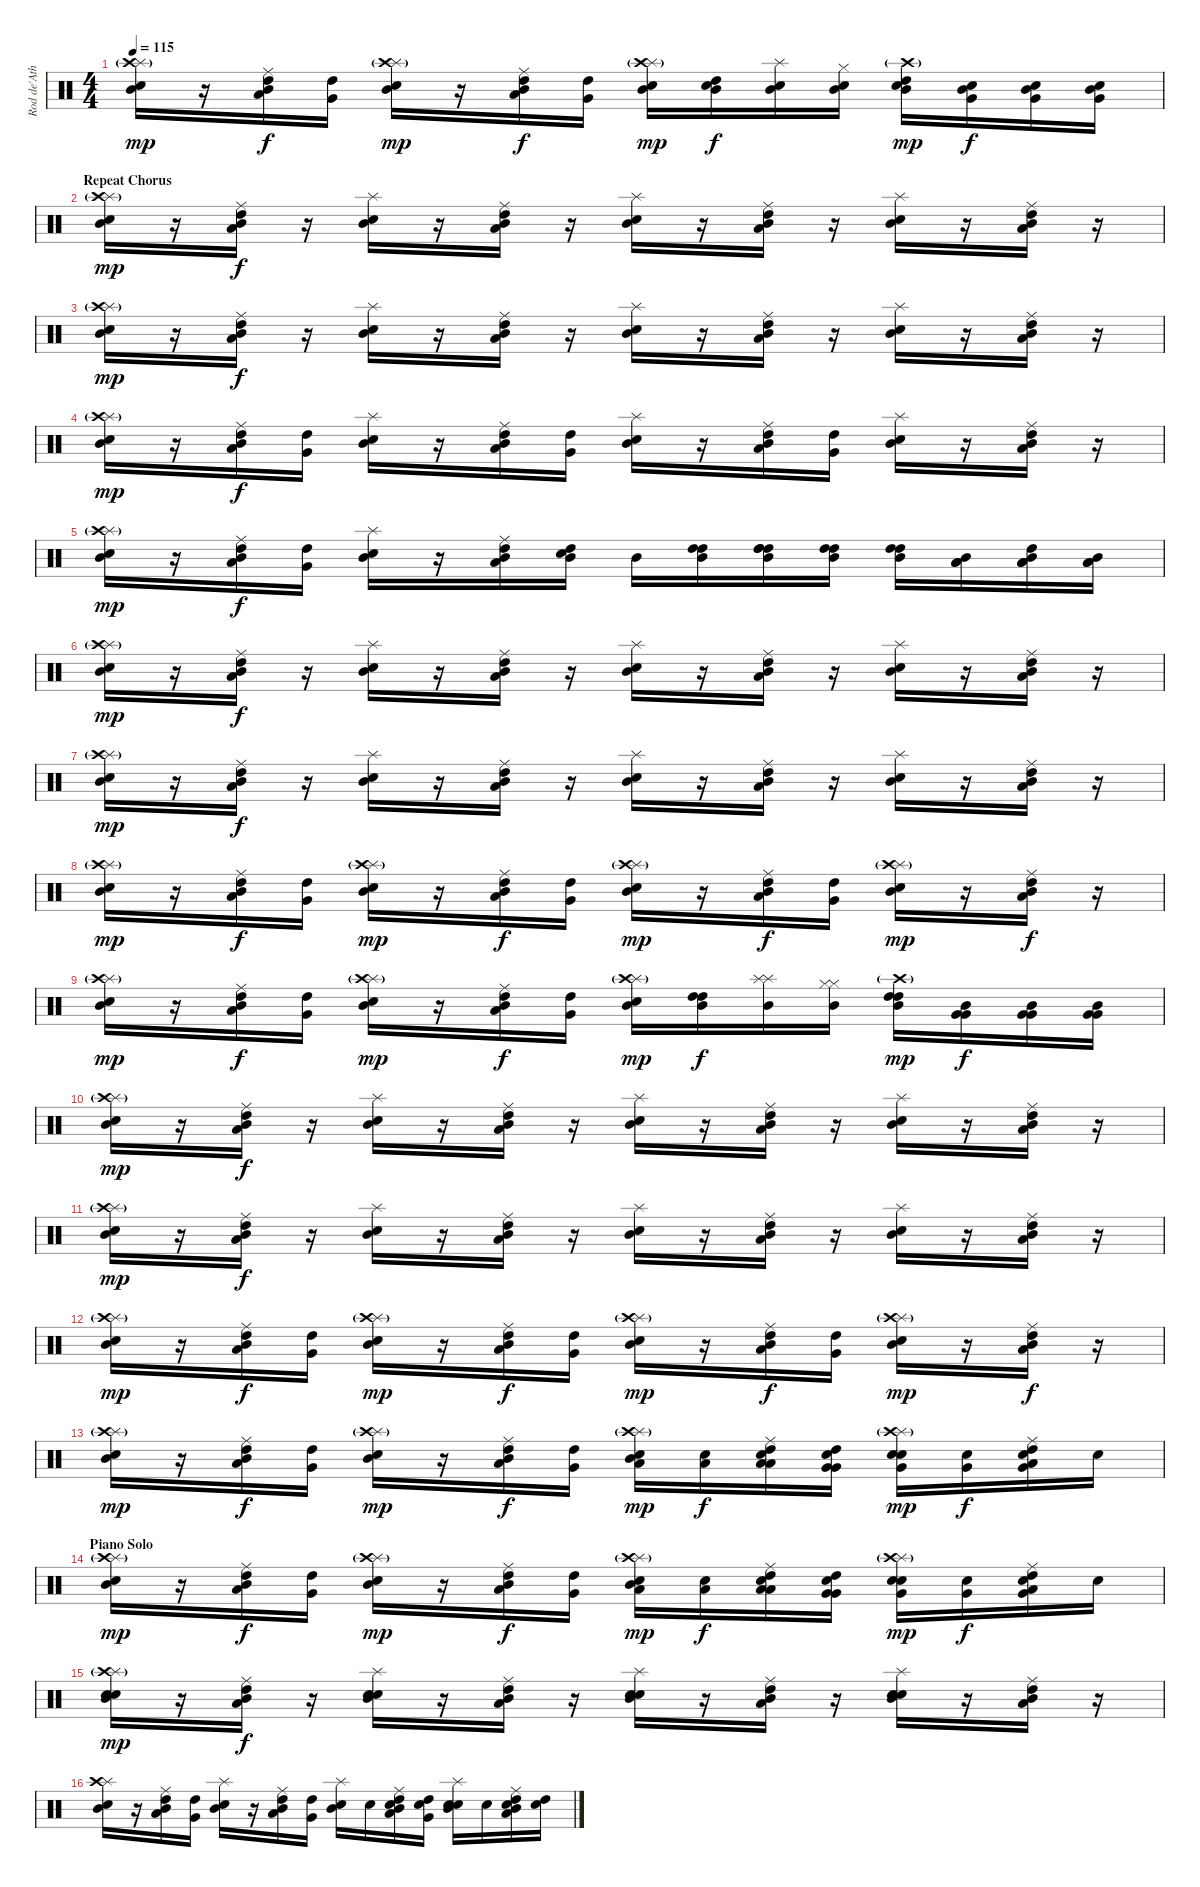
\track ("Rod de'Ath" "Rod de'Ath") {instrument percussion}
\staff {score}
\articulation defaults
\ts (4 4)
\tempo 115
\clef neutral
\ks c
("Splash (hit)" "Snare (hit) 2" "Crash high (hit)"{g} "Mid Tom (hit)").16{dy mp} r.16 ("Ride (middle)" "Low Tom (hit)" "High Tom (hit)" "Mid Tom (hit)").16{dy f} ("Very Low Tom (hit)" "High Tom (hit)").16 ("Splash (hit)" "Snare (hit) 2" "Crash high (hit)"{g} "Mid Tom (hit)").16{dy mp} r.16 ("Ride (middle)" "Low Tom (hit)" "High Tom (hit)" "Mid Tom (hit)").16{dy f} ("Very Low Tom (hit)" "High Tom (hit)").16 ("Splash (hit)" "Electric Snare (hit)" "Crash high (hit)"{g} "Mid Tom (hit)").16{dy mp} ("High Tom (hit)" "Electric Snare (hit)" "Mid Tom (hit)").16{dy f} ("Splash (hit)" "Electric Snare (hit)" "Mid Tom (hit)").16 ("Hi-Hat (closed)" "Electric Snare (hit)" "Mid Tom (hit)").16 ("High Tom (hit)" "Snare (hit) 2" "Crash high (hit)"{g} "Mid Tom (hit)").16{dy mp} ("Very Low Tom (hit)" "Snare (hit) 2" "Mid Tom (hit)").16{dy f} ("Very Low Tom (hit)" "Snare (hit) 2" "Mid Tom (hit)").16 ("Very Low Tom (hit)" "Snare (hit) 2" "Mid Tom (hit)").16 |
\section ("" "Repeat Chorus")
("Splash (hit)" "Snare (hit) 2" "Crash high (hit)"{g} "Mid Tom (hit)").16{dy mp} r.16 ("Ride (middle)" "Low Tom (hit)" "High Tom (hit)" "Mid Tom (hit)").16{dy f} r.16 ("Splash (hit)" "Snare (hit) 2" "Mid Tom (hit)").16 r.16 ("Ride (middle)" "Low Tom (hit)" "High Tom (hit)" "Mid Tom (hit)").16 r.16 ("Splash (hit)" "Snare (hit) 2" "Mid Tom (hit)").16 r.16 ("Ride (middle)" "Low Tom (hit)" "High Tom (hit)" "Mid Tom (hit)").16 r.16 ("Splash (hit)" "Snare (hit) 2" "Mid Tom (hit)").16 r.16 ("Ride (middle)" "Low Tom (hit)" "High Tom (hit)" "Mid Tom (hit)").16 r.16 |
("Splash (hit)" "Snare (hit) 2" "Crash high (hit)"{g} "Mid Tom (hit)").16{dy mp} r.16 ("Ride (middle)" "Low Tom (hit)" "High Tom (hit)" "Mid Tom (hit)").16{dy f} r.16 ("Splash (hit)" "Snare (hit) 2" "Mid Tom (hit)").16 r.16 ("Ride (middle)" "Low Tom (hit)" "High Tom (hit)" "Mid Tom (hit)").16 r.16 ("Splash (hit)" "Snare (hit) 2" "Mid Tom (hit)").16 r.16 ("Ride (middle)" "Low Tom (hit)" "High Tom (hit)" "Mid Tom (hit)").16 r.16 ("Splash (hit)" "Snare (hit) 2" "Mid Tom (hit)").16 r.16 ("Ride (middle)" "Low Tom (hit)" "High Tom (hit)" "Mid Tom (hit)").16 r.16 |
("Splash (hit)" "Snare (hit) 2" "Crash high (hit)"{g} "Mid Tom (hit)").16{dy mp} r.16 ("Ride (middle)" "Low Tom (hit)" "High Tom (hit)" "Mid Tom (hit)").16{dy f} ("Very Low Tom (hit)" "High Tom (hit)").16 ("Splash (hit)" "Snare (hit) 2" "Mid Tom (hit)").16 r.16 ("Ride (middle)" "Low Tom (hit)" "High Tom (hit)" "Mid Tom (hit)").16 ("Very Low Tom (hit)" "High Tom (hit)").16 ("Splash (hit)" "Snare (hit) 2" "Mid Tom (hit)").16 r.16 ("Ride (middle)" "Low Tom (hit)" "High Tom (hit)" "Mid Tom (hit)").16 ("Very Low Tom (hit)" "High Tom (hit)").16 ("Splash (hit)" "Snare (hit) 2" "Mid Tom (hit)").16 r.16 ("Ride (middle)" "Low Tom (hit)" "High Tom (hit)" "Mid Tom (hit)").16 r.16 |
("Splash (hit)" "Snare (hit) 2" "Crash high (hit)"{g} "Mid Tom (hit)").16{dy mp} r.16 ("Ride (middle)" "Low Tom (hit)" "High Tom (hit)" "Mid Tom (hit)").16{dy f} ("High Tom (hit)" "Very Low Tom (hit)").16 ("Splash (hit)" "Snare (hit) 2" "Mid Tom (hit)").16 r.16 ("Ride (middle)" "Low Tom (hit)" "High Tom (hit)" "Mid Tom (hit)").16 ("Electric Snare (hit)" "High Tom (hit)" "Mid Tom (hit)").16 "Mid Tom (hit)".16 ("High Tom (hit)" "High Tom (hit)" "Mid Tom (hit)").16 ("High Tom (hit)" "High Tom (hit)" "High Tom (hit)" "Mid Tom (hit)").16 ("High Tom (hit)" "High Tom (hit)" "Mid Tom (hit)").16 ("High Tom (hit)" "High Tom (hit)" "Mid Tom (hit)").16 ("Low Tom (hit)" "Low Tom (hit)" "Mid Tom (hit)").16 ("Low Tom (hit)" "Low Tom (hit)" "High Tom (hit)" "Mid Tom (hit)").16 ("Low Tom (hit)" "Low Tom (hit)" "Mid Tom (hit)").16 |
("Splash (hit)" "Snare (hit) 2" "Crash high (hit)"{g} "Mid Tom (hit)").16{dy mp} r.16 ("Ride (middle)" "Low Tom (hit)" "High Tom (hit)" "Mid Tom (hit)").16{dy f} r.16 ("Splash (hit)" "Snare (hit) 2" "Mid Tom (hit)").16 r.16 ("Ride (middle)" "Low Tom (hit)" "High Tom (hit)" "Mid Tom (hit)").16 r.16 ("Splash (hit)" "Snare (hit) 2" "Mid Tom (hit)").16 r.16 ("Ride (middle)" "Low Tom (hit)" "High Tom (hit)" "Mid Tom (hit)").16 r.16 ("Splash (hit)" "Snare (hit) 2" "Mid Tom (hit)").16 r.16 ("Ride (middle)" "Low Tom (hit)" "High Tom (hit)" "Mid Tom (hit)").16 r.16 |
("Splash (hit)" "Snare (hit) 2" "Crash high (hit)"{g} "Mid Tom (hit)").16{dy mp} r.16 ("Ride (middle)" "Low Tom (hit)" "High Tom (hit)" "Mid Tom (hit)").16{dy f} r.16 ("Splash (hit)" "Snare (hit) 2" "Mid Tom (hit)").16 r.16 ("Ride (middle)" "Low Tom (hit)" "High Tom (hit)" "Mid Tom (hit)").16 r.16 ("Splash (hit)" "Snare (hit) 2" "Mid Tom (hit)").16 r.16 ("Ride (middle)" "Low Tom (hit)" "High Tom (hit)" "Mid Tom (hit)").16 r.16 ("Splash (hit)" "Snare (hit) 2" "Mid Tom (hit)").16 r.16 ("Ride (middle)" "Low Tom (hit)" "High Tom (hit)" "Mid Tom (hit)").16 r.16 |
("Splash (hit)" "Snare (hit) 2" "Crash high (hit)"{g} "Mid Tom (hit)").16{dy mp} r.16 ("Ride (middle)" "Low Tom (hit)" "High Tom (hit)" "Mid Tom (hit)").16{dy f} ("Very Low Tom (hit)" "High Tom (hit)").16 ("Splash (hit)" "Snare (hit) 2" "Crash high (hit)"{g} "Mid Tom (hit)").16{dy mp} r.16 ("Ride (middle)" "Low Tom (hit)" "High Tom (hit)" "Mid Tom (hit)").16{dy f} ("Very Low Tom (hit)" "High Tom (hit)").16 ("Splash (hit)" "Snare (hit) 2" "Crash high (hit)"{g} "Mid Tom (hit)").16{dy mp} r.16 ("Ride (middle)" "Low Tom (hit)" "High Tom (hit)" "Mid Tom (hit)").16{dy f} ("Very Low Tom (hit)" "High Tom (hit)").16 ("Splash (hit)" "Snare (hit) 2" "Crash high (hit)"{g} "Mid Tom (hit)").16{dy mp} r.16 ("Ride (middle)" "Low Tom (hit)" "High Tom (hit)" "Mid Tom (hit)").16{dy f} r.16 |
("Splash (hit)" "Snare (hit) 2" "Crash high (hit)"{g} "Mid Tom (hit)").16{dy mp} r.16 ("Ride (middle)" "Low Tom (hit)" "High Tom (hit)" "Mid Tom (hit)").16{dy f} ("Very Low Tom (hit)" "High Tom (hit)").16 ("Splash (hit)" "Snare (hit) 2" "Crash high (hit)"{g} "Mid Tom (hit)").16{dy mp} r.16 ("Ride (middle)" "Low Tom (hit)" "High Tom (hit)" "Mid Tom (hit)").16{dy f} ("Very Low Tom (hit)" "High Tom (hit)").16 ("Splash (hit)" "Snare (hit) 2" "Crash high (hit)"{g} "Mid Tom (hit)").16{dy mp} ("High Tom (hit)" "High Tom (hit)" "Mid Tom (hit)").16{dy f} ("Splash (hit)" "Splash (hit)" "Mid Tom (hit)").16 ("Hi-Hat (closed)" "Hi-Hat (closed)" "Mid Tom (hit)").16 ("High Tom (hit)" "High Tom (hit)" "Crash high (hit)"{g} "Mid Tom (hit)").16{dy mp} ("Very Low Tom (hit)" "Very Low Tom (hit)" "Mid Tom (hit)").16{dy f} ("Very Low Tom (hit)" "Very Low Tom (hit)" "Mid Tom (hit)").16 ("Very Low Tom (hit)" "Very Low Tom (hit)" "Mid Tom (hit)").16 |
("Splash (hit)" "Snare (hit) 2" "Crash high (hit)"{g} "Mid Tom (hit)").16{dy mp} r.16 ("Ride (middle)" "Low Tom (hit)" "High Tom (hit)" "Mid Tom (hit)").16{dy f} r.16 ("Splash (hit)" "Snare (hit) 2" "Mid Tom (hit)").16 r.16 ("Ride (middle)" "Low Tom (hit)" "High Tom (hit)" "Mid Tom (hit)").16 r.16 ("Splash (hit)" "Snare (hit) 2" "Mid Tom (hit)").16 r.16 ("Ride (middle)" "Low Tom (hit)" "High Tom (hit)" "Mid Tom (hit)").16 r.16 ("Splash (hit)" "Snare (hit) 2" "Mid Tom (hit)").16 r.16 ("Ride (middle)" "Low Tom (hit)" "High Tom (hit)" "Mid Tom (hit)").16 r.16 |
("Splash (hit)" "Snare (hit) 2" "Crash high (hit)"{g} "Mid Tom (hit)").16{dy mp} r.16 ("Ride (middle)" "Low Tom (hit)" "High Tom (hit)" "Mid Tom (hit)").16{dy f} r.16 ("Splash (hit)" "Snare (hit) 2" "Mid Tom (hit)").16 r.16 ("Ride (middle)" "Low Tom (hit)" "High Tom (hit)" "Mid Tom (hit)").16 r.16 ("Splash (hit)" "Snare (hit) 2" "Mid Tom (hit)").16 r.16 ("Ride (middle)" "Low Tom (hit)" "High Tom (hit)" "Mid Tom (hit)").16 r.16 ("Splash (hit)" "Snare (hit) 2" "Mid Tom (hit)").16 r.16 ("Ride (middle)" "Low Tom (hit)" "High Tom (hit)" "Mid Tom (hit)").16 r.16 |
("Splash (hit)" "Snare (hit) 2" "Crash high (hit)"{g} "Mid Tom (hit)").16{dy mp} r.16 ("Ride (middle)" "Low Tom (hit)" "High Tom (hit)" "Mid Tom (hit)").16{dy f} ("Very Low Tom (hit)" "High Tom (hit)").16 ("Splash (hit)" "Snare (hit) 2" "Crash high (hit)"{g} "Mid Tom (hit)").16{dy mp} r.16 ("Ride (middle)" "Low Tom (hit)" "High Tom (hit)" "Mid Tom (hit)").16{dy f} ("Very Low Tom (hit)" "High Tom (hit)").16 ("Splash (hit)" "Snare (hit) 2" "Crash high (hit)"{g} "Mid Tom (hit)").16{dy mp} r.16 ("Ride (middle)" "Low Tom (hit)" "High Tom (hit)" "Mid Tom (hit)").16{dy f} ("Very Low Tom (hit)" "High Tom (hit)").16 ("Splash (hit)" "Snare (hit) 2" "Crash high (hit)"{g} "Mid Tom (hit)").16{dy mp} r.16 ("Ride (middle)" "Low Tom (hit)" "High Tom (hit)" "Mid Tom (hit)").16{dy f} r.16 |
("Splash (hit)" "Snare (hit) 2" "Crash high (hit)"{g} "Mid Tom (hit)").16{dy mp} r.16 ("Ride (middle)" "Low Tom (hit)" "High Tom (hit)" "Mid Tom (hit)").16{dy f} ("Very Low Tom (hit)" "High Tom (hit)").16 ("Splash (hit)" "Snare (hit) 2" "Crash high (hit)"{g} "Mid Tom (hit)").16{dy mp} r.16 ("Ride (middle)" "Low Tom (hit)" "High Tom (hit)" "Mid Tom (hit)").16{dy f} ("Very Low Tom (hit)" "High Tom (hit)").16 ("Splash (hit)" "Snare (hit) 2" "Low Tom (hit)" "Crash high (hit)"{g} "Mid Tom (hit)").16{dy mp} ("Low Tom (hit)" "Snare (hit) 2").16{dy f} ("Ride (middle)" "Low Tom (hit)" "High Tom (hit)" "Low Tom (hit)" "Snare (hit) 2").16 ("Very Low Tom (hit)" "High Tom (hit)" "Very Low Tom (hit)" "Snare (hit) 2").16 ("Splash (hit)" "Snare (hit) 2" "Very Low Tom (hit)" "Crash high (hit)"{g} "Snare (hit) 2").16{dy mp} ("Very Low Tom (hit)" "Snare (hit) 2").16{dy f} ("Ride (middle)" "Low Tom (hit)" "High Tom (hit)" "Very Low Tom (hit)" "Snare (hit) 2").16 "Snare (hit) 2".16 |
\section ("" "Piano Solo")
("Splash (hit)" "Snare (hit) 2" "Crash high (hit)"{g} "Mid Tom (hit)").16{dy mp} r.16 ("Ride (middle)" "Low Tom (hit)" "High Tom (hit)" "Mid Tom (hit)").16{dy f} ("Very Low Tom (hit)" "High Tom (hit)").16 ("Splash (hit)" "Snare (hit) 2" "Crash high (hit)"{g} "Mid Tom (hit)").16{dy mp} r.16 ("Ride (middle)" "Low Tom (hit)" "High Tom (hit)" "Mid Tom (hit)").16{dy f} ("Very Low Tom (hit)" "High Tom (hit)").16 ("Splash (hit)" "Snare (hit) 2" "Low Tom (hit)" "Crash high (hit)"{g} "Mid Tom (hit)").16{dy mp} ("Low Tom (hit)" "Snare (hit) 2").16{dy f} ("Ride (middle)" "Low Tom (hit)" "High Tom (hit)" "Low Tom (hit)" "Snare (hit) 2").16 ("Very Low Tom (hit)" "High Tom (hit)" "Very Low Tom (hit)" "Snare (hit) 2").16 ("Splash (hit)" "Snare (hit) 2" "Very Low Tom (hit)" "Crash high (hit)"{g} "Snare (hit) 2").16{dy mp} ("Very Low Tom (hit)" "Snare (hit) 2").16{dy f} ("Ride (middle)" "Low Tom (hit)" "High Tom (hit)" "Very Low Tom (hit)" "Snare (hit) 2").16 "Snare (hit) 2".16 |
("Splash (hit)" "Snare (hit) 2" "Electric Snare (hit)" "Crash high (hit)"{g} "Mid Tom (hit)").16{dy mp} r.16 ("Ride (middle)" "Low Tom (hit)" "High Tom (hit)" "Mid Tom (hit)").16{dy f} r.16 ("Splash (hit)" "Snare (hit) 2" "Electric Snare (hit)" "Mid Tom (hit)").16 r.16 ("Ride (middle)" "Low Tom (hit)" "High Tom (hit)" "Mid Tom (hit)").16 r.16 ("Splash (hit)" "Snare (hit) 2" "Electric Snare (hit)" "Mid Tom (hit)").16 r.16 ("Ride (middle)" "Low Tom (hit)" "High Tom (hit)" "Mid Tom (hit)").16 r.16 ("Splash (hit)" "Snare (hit) 2" "Electric Snare (hit)" "Mid Tom (hit)").16 r.16 ("Ride (middle)" "Low Tom (hit)" "High Tom (hit)" "Mid Tom (hit)").16 r.16 |
("Splash (hit)" "Snare (hit) 2" "Crash high (hit)" "Mid Tom (hit)").16 r.16 ("Ride (middle)" "Low Tom (hit)" "High Tom (hit)" "Mid Tom (hit)").16 ("Very Low Tom (hit)" "High Tom (hit)").16 ("Splash (hit)" "Snare (hit) 2" "Mid Tom (hit)").16 r.16 ("Ride (middle)" "Low Tom (hit)" "High Tom (hit)" "Mid Tom (hit)").16 ("Very Low Tom (hit)" "High Tom (hit)").16 ("Splash (hit)" "Snare (hit) 2" "Mid Tom (hit)").16 "Snare (hit) 2".16 ("Ride (middle)" "Low Tom (hit)" "High Tom (hit)" "Electric Snare (hit)" "Mid Tom (hit)").16 ("Very Low Tom (hit)" "High Tom (hit)" "Electric Snare (hit)").16 ("Splash (hit)" "Snare (hit) 2" "Electric Snare (hit)" "Mid Tom (hit)").16 "Electric Snare (hit)".16 ("Ride (middle)" "Low Tom (hit)" "High Tom (hit)" "Electric Snare (hit)" "Mid Tom (hit)").16 ("High Tom (hit)" "Electric Snare (hit)").16
